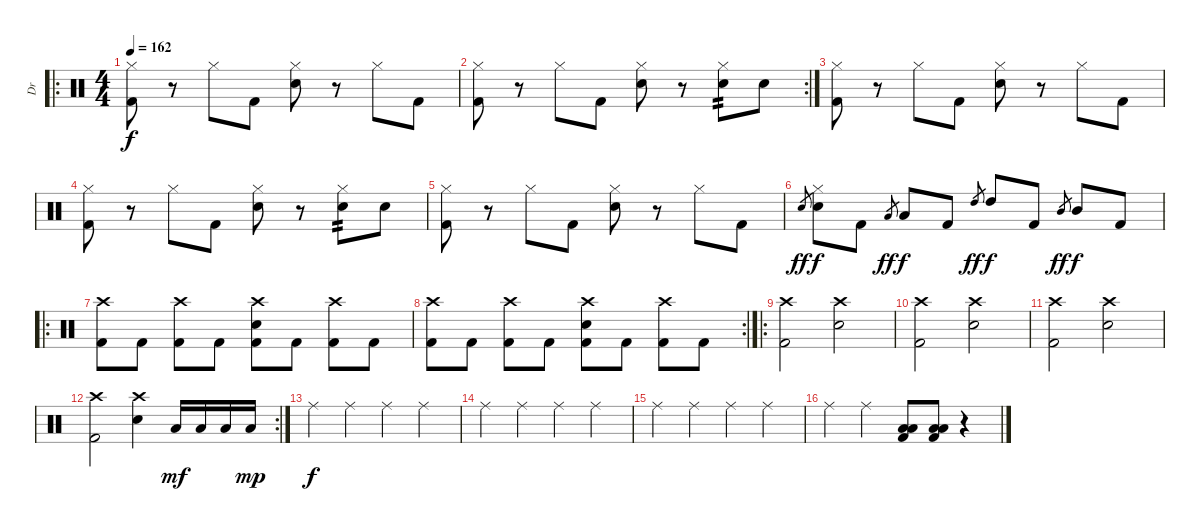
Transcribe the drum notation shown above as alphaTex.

\track ("Dr" "Dr") {instrument percussion}
\staff {score}
\articulation defaults
\ro
\ts (4 4)
\tempo 162
\clef neutral
\ks c
("Hi-Hat (closed)" "Kick (hit) 2").8{dy f} r.8 "Hi-Hat (closed)".8 "Kick (hit) 2".8 ("Hi-Hat (closed)" "Electric Snare (hit)").8 r.8 "Hi-Hat (closed)".8 "Kick (hit) 2".8 |
\rc 2
("Hi-Hat (closed)" "Kick (hit) 2").8 r.8 "Hi-Hat (closed)".8 "Kick (hit) 2".8 ("Hi-Hat (closed)" "Electric Snare (hit)").8 r.8 ("Hi-Hat (closed)" "Electric Snare (hit)").8{tp 2} "Electric Snare (hit)".8 |
("Hi-Hat (closed)" "Kick (hit) 2").8 r.8 "Hi-Hat (closed)".8 "Kick (hit) 2".8 ("Hi-Hat (closed)" "Electric Snare (hit)").8 r.8 "Hi-Hat (closed)".8 "Kick (hit) 2".8 |
("Hi-Hat (closed)" "Kick (hit) 2").8 r.8 "Hi-Hat (closed)".8 "Kick (hit) 2".8 ("Hi-Hat (closed)" "Electric Snare (hit)").8 r.8 ("Hi-Hat (closed)" "Electric Snare (hit)").8{tp 2} "Electric Snare (hit)".8 |
("Hi-Hat (closed)" "Kick (hit) 2").8 r.8 "Hi-Hat (closed)".8 "Kick (hit) 2".8 ("Hi-Hat (closed)" "Electric Snare (hit)").8 r.8 "Hi-Hat (closed)".8 "Kick (hit) 2".8 |
"Electric Snare (hit)".8{gr dy ff} ("Hi-Hat (closed)" "Electric Snare (hit)").8{dy f} "Kick (hit) 2".8 "Low Tom (hit)".8{gr dy ff} "Low Tom (hit)".8{dy f} "Kick (hit) 2".8 "High Tom (hit)".8{gr dy ff} "High Tom (hit)".8{dy f} "Kick (hit) 2".8 "Mid Tom (hit)".8{gr dy ff} "Mid Tom (hit)".8{dy f} "Kick (hit) 2".8 |
\ro
("Crash high (hit)" "Kick (hit) 2").8 "Kick (hit) 2".8 ("Crash high (hit)" "Kick (hit) 2").8 "Kick (hit) 2".8 ("Crash high (hit)" "Electric Snare (hit)" "Kick (hit) 2").8 "Kick (hit) 2".8 ("Crash high (hit)" "Kick (hit) 2").8 "Kick (hit) 2".8 |
\rc 2
("Crash high (hit)" "Kick (hit) 2").8 "Kick (hit) 2".8 ("Crash high (hit)" "Kick (hit) 2").8 "Kick (hit) 2".8 ("Crash high (hit)" "Electric Snare (hit)" "Kick (hit) 2").8 "Kick (hit) 2".8 ("Crash high (hit)" "Kick (hit) 2").8 "Kick (hit) 2".8 |
\ro
("Crash high (hit)" "Kick (hit) 2").2 ("Crash high (hit)" "Electric Snare (hit)").2 |
("Crash high (hit)" "Kick (hit) 2").2 ("Crash high (hit)" "Electric Snare (hit)").2 |
("Crash high (hit)" "Kick (hit) 2").2 ("Crash high (hit)" "Electric Snare (hit)").2 |
\rc 2
("Crash high (hit)" "Kick (hit) 2").2 ("Crash high (hit)" "Electric Snare (hit)").4 "Low Tom (hit)".16{dy mf} "Low Tom (hit)".16 "Low Tom (hit)".16 "Low Tom (hit)".16{dy mp} |
"Ride (middle)".4{dy f} "Ride (middle)".4 "Ride (middle)".4 "Ride (middle)".4 |
"Ride (middle)".4 "Ride (middle)".4 "Ride (middle)".4 "Ride (middle)".4 |
"Ride (middle)".4 "Ride (middle)".4 "Ride (middle)".4 "Ride (middle)".4 |
"Ride (middle)".4 "Ride (middle)".4 ("Low Tom (hit)" "Low Tom (hit)" "Kick (hit) 2").8 ("Low Tom (hit)" "Low Tom (hit)" "Kick (hit) 2").8 r.4
